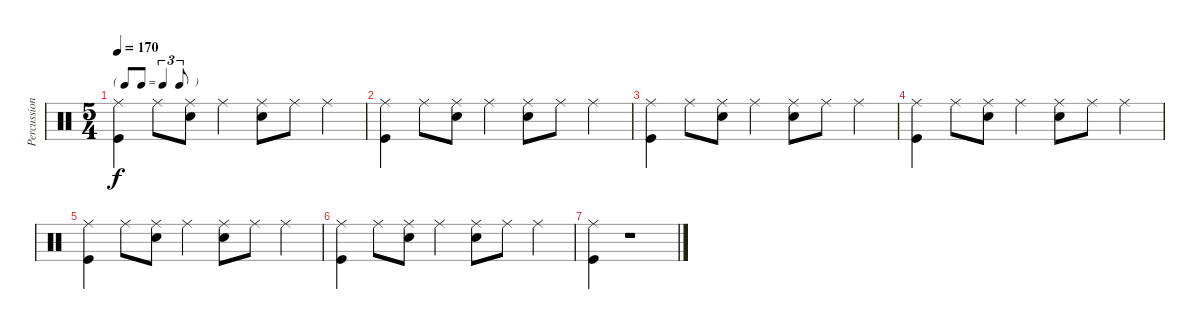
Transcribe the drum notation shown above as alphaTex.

\track ("Percussions" "Percussion") {instrument percussion}
\staff {score}
\articulation defaults
\ts (5 4)
\tf triplet8th
\tempo 170
\clef neutral
\ks c
("Ride (middle)" "Kick (hit)").4{dy f} "Ride (middle)".8 ("Ride (middle)" "Snare (hit) 2").8 "Ride (middle)".4 ("Ride (middle)" "Snare (hit) 2").8 "Ride (middle)".8 "Ride (middle)".4 |
("Ride (middle)" "Kick (hit)").4 "Ride (middle)".8 ("Ride (middle)" "Snare (hit) 2").8 "Ride (middle)".4 ("Ride (middle)" "Snare (hit) 2").8 "Ride (middle)".8 "Ride (middle)".4 |
("Ride (middle)" "Kick (hit)").4 "Ride (middle)".8 ("Ride (middle)" "Snare (hit) 2").8 "Ride (middle)".4 ("Ride (middle)" "Snare (hit) 2").8 "Ride (middle)".8 "Ride (middle)".4 |
("Ride (middle)" "Kick (hit)").4 "Ride (middle)".8 ("Ride (middle)" "Snare (hit) 2").8 "Ride (middle)".4 ("Ride (middle)" "Snare (hit) 2").8 "Ride (middle)".8 "Ride (middle)".4 |
("Ride (middle)" "Kick (hit)").4 "Ride (middle)".8 ("Ride (middle)" "Snare (hit) 2").8 "Ride (middle)".4 ("Ride (middle)" "Snare (hit) 2").8 "Ride (middle)".8 "Ride (middle)".4 |
("Ride (middle)" "Kick (hit)").4 "Ride (middle)".8 ("Ride (middle)" "Snare (hit) 2").8 "Ride (middle)".4 ("Ride (middle)" "Snare (hit) 2").8 "Ride (middle)".8 "Ride (middle)".4 |
("Ride (middle)" "Kick (hit)").4 r.1
